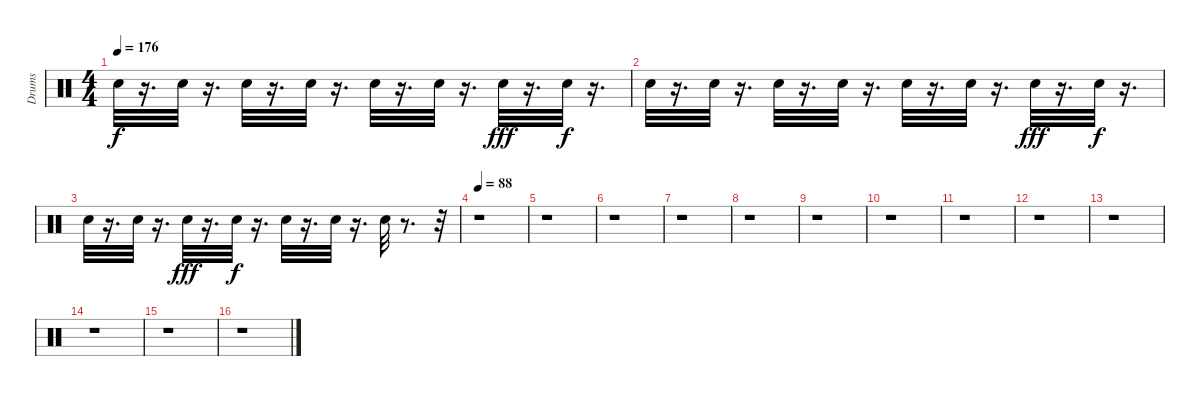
\track ("Drums" "Drums") {instrument percussion}
\staff {score}
\articulation defaults
\ts (4 4)
\tempo 176
\clef neutral
\ks c "Snare (hit) 2".32{dy f}
r.16{d} "Snare (hit) 2".32 r.16{d} "Snare (hit) 2".32 r.16{d} "Snare (hit) 2".32 r.16{d} "Snare (hit) 2".32 r.16{d} "Snare (hit) 2".32 r.16{d} "Snare (hit) 2".32{dy fff} r.16{d} "Snare (hit) 2".32{dy f} r.16{d} |
"Snare (hit) 2".32 r.16{d} "Snare (hit) 2".32 r.16{d} "Snare (hit) 2".32 r.16{d} "Snare (hit) 2".32 r.16{d} "Snare (hit) 2".32 r.16{d} "Snare (hit) 2".32 r.16{d} "Snare (hit) 2".32{dy fff} r.16{d} "Snare (hit) 2".32{dy f} r.16{d} |
"Snare (hit) 2".32 r.16{d} "Snare (hit) 2".32 r.16{d} "Snare (hit) 2".32{dy fff} r.16{d} "Snare (hit) 2".32{dy f} r.16{d} "Snare (hit) 2".32 r.16{d} "Snare (hit) 2".32 r.16{d} "Snare (hit) 2".32 r.8{d} r.32 |
\tempo 88
r.1 |
r.1 |
r.1 |
r.1 |
r.1 |
r.1 |
r.1 |
r.1 |
r.1 |
r.1 |
r.1 |
r.1 |
r.1
